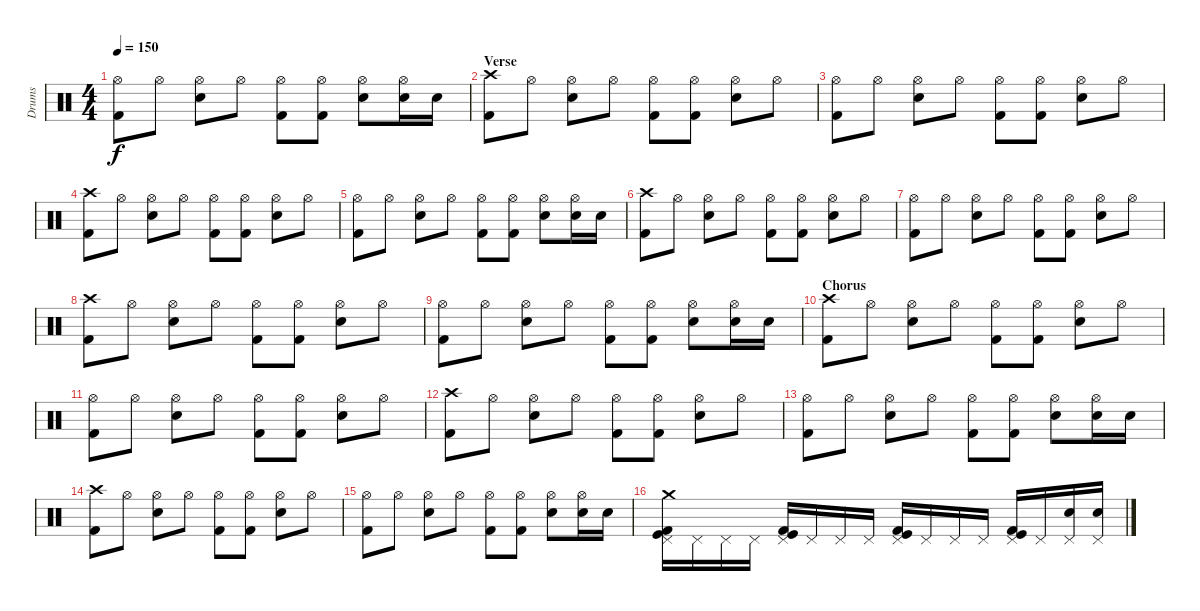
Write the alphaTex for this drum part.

\track ("Drums" "Drums") {instrument percussion}
\staff {score}
\articulation defaults
\ts (4 4)
\tempo 150
\clef neutral
\ks c
("Hi-Hat (open)" "Kick (hit) 2").8{dy f} "Hi-Hat (open)".8 ("Hi-Hat (open)" "Snare (hit) 2").8 "Hi-Hat (open)".8 ("Hi-Hat (open)" "Kick (hit) 2").8 ("Hi-Hat (open)" "Kick (hit) 2").8 ("Hi-Hat (open)" "Snare (hit) 2").8 ("Hi-Hat (open)" "Snare (hit) 2").16 "Snare (hit) 2".16 |
\section ("" "Verse")
("Crash high (hit)" "Kick (hit) 2").8 "Hi-Hat (open)".8 ("Hi-Hat (open)" "Snare (hit) 2").8 "Hi-Hat (open)".8 ("Hi-Hat (open)" "Kick (hit) 2").8 ("Hi-Hat (open)" "Kick (hit) 2").8 ("Hi-Hat (open)" "Snare (hit) 2").8 "Hi-Hat (open)".8 |
("Hi-Hat (open)" "Kick (hit) 2").8 "Hi-Hat (open)".8 ("Hi-Hat (open)" "Snare (hit) 2").8 "Hi-Hat (open)".8 ("Hi-Hat (open)" "Kick (hit) 2").8 ("Hi-Hat (open)" "Kick (hit) 2").8 ("Hi-Hat (open)" "Snare (hit) 2").8 "Hi-Hat (open)".8 |
("Crash high (hit)" "Kick (hit) 2").8 "Hi-Hat (open)".8 ("Hi-Hat (open)" "Snare (hit) 2").8 "Hi-Hat (open)".8 ("Hi-Hat (open)" "Kick (hit) 2").8 ("Hi-Hat (open)" "Kick (hit) 2").8 ("Hi-Hat (open)" "Snare (hit) 2").8 "Hi-Hat (open)".8 |
("Hi-Hat (open)" "Kick (hit) 2").8 "Hi-Hat (open)".8 ("Hi-Hat (open)" "Snare (hit) 2").8 "Hi-Hat (open)".8 ("Hi-Hat (open)" "Kick (hit) 2").8 ("Hi-Hat (open)" "Kick (hit) 2").8 ("Hi-Hat (open)" "Snare (hit) 2").8 ("Hi-Hat (open)" "Snare (hit) 2").16 "Snare (hit) 2".16 |
("Crash high (hit)" "Kick (hit) 2").8 "Hi-Hat (open)".8 ("Hi-Hat (open)" "Snare (hit) 2").8 "Hi-Hat (open)".8 ("Hi-Hat (open)" "Kick (hit) 2").8 ("Hi-Hat (open)" "Kick (hit) 2").8 ("Hi-Hat (open)" "Snare (hit) 2").8 "Hi-Hat (open)".8 |
("Hi-Hat (open)" "Kick (hit) 2").8 "Hi-Hat (open)".8 ("Hi-Hat (open)" "Snare (hit) 2").8 "Hi-Hat (open)".8 ("Hi-Hat (open)" "Kick (hit) 2").8 ("Hi-Hat (open)" "Kick (hit) 2").8 ("Hi-Hat (open)" "Snare (hit) 2").8 "Hi-Hat (open)".8 |
("Crash high (hit)" "Kick (hit) 2").8 "Hi-Hat (open)".8 ("Hi-Hat (open)" "Snare (hit) 2").8 "Hi-Hat (open)".8 ("Hi-Hat (open)" "Kick (hit) 2").8 ("Hi-Hat (open)" "Kick (hit) 2").8 ("Hi-Hat (open)" "Snare (hit) 2").8 "Hi-Hat (open)".8 |
("Hi-Hat (open)" "Kick (hit) 2").8 "Hi-Hat (open)".8 ("Hi-Hat (open)" "Snare (hit) 2").8 "Hi-Hat (open)".8 ("Hi-Hat (open)" "Kick (hit) 2").8 ("Hi-Hat (open)" "Kick (hit) 2").8 ("Hi-Hat (open)" "Snare (hit) 2").8 ("Hi-Hat (open)" "Snare (hit) 2").16 "Snare (hit) 2".16 |
\section ("" "Chorus")
("Crash high (hit)" "Kick (hit) 2").8 "Hi-Hat (open)".8 ("Hi-Hat (open)" "Snare (hit) 2").8 "Hi-Hat (open)".8 ("Hi-Hat (open)" "Kick (hit) 2").8 ("Hi-Hat (open)" "Kick (hit) 2").8 ("Hi-Hat (open)" "Snare (hit) 2").8 "Hi-Hat (open)".8 |
("Hi-Hat (open)" "Kick (hit) 2").8 "Hi-Hat (open)".8 ("Hi-Hat (open)" "Snare (hit) 2").8 "Hi-Hat (open)".8 ("Hi-Hat (open)" "Kick (hit) 2").8 ("Hi-Hat (open)" "Kick (hit) 2").8 ("Hi-Hat (open)" "Snare (hit) 2").8 "Hi-Hat (open)".8 |
("Crash high (hit)" "Kick (hit) 2").8 "Hi-Hat (open)".8 ("Hi-Hat (open)" "Snare (hit) 2").8 "Hi-Hat (open)".8 ("Hi-Hat (open)" "Kick (hit) 2").8 ("Hi-Hat (open)" "Kick (hit) 2").8 ("Hi-Hat (open)" "Snare (hit) 2").8 "Hi-Hat (open)".8 |
("Hi-Hat (open)" "Kick (hit) 2").8 "Hi-Hat (open)".8 ("Hi-Hat (open)" "Snare (hit) 2").8 "Hi-Hat (open)".8 ("Hi-Hat (open)" "Kick (hit) 2").8 ("Hi-Hat (open)" "Kick (hit) 2").8 ("Hi-Hat (open)" "Snare (hit) 2").8 ("Hi-Hat (open)" "Snare (hit) 2").16 "Snare (hit) 2".16 |
("Crash high (hit)" "Kick (hit) 2").8 "Hi-Hat (open)".8 ("Hi-Hat (open)" "Snare (hit) 2").8 "Hi-Hat (open)".8 ("Hi-Hat (open)" "Kick (hit) 2").8 ("Hi-Hat (open)" "Kick (hit) 2").8 ("Hi-Hat (open)" "Snare (hit) 2").8 "Hi-Hat (open)".8 |
("Hi-Hat (open)" "Kick (hit) 2").8 "Hi-Hat (open)".8 ("Hi-Hat (open)" "Snare (hit) 2").8 "Hi-Hat (open)".8 ("Hi-Hat (open)" "Kick (hit) 2").8 ("Hi-Hat (open)" "Kick (hit) 2").8 ("Hi-Hat (open)" "Snare (hit) 2").8 ("Hi-Hat (open)" "Snare (hit) 2").16 "Snare (hit) 2".16 |
("Pedal Hi-Hat (hit)" "Kick (hit) 2" "Kick (hit)" "Crash medium (hit)").16 "Pedal Hi-Hat (hit)".16 "Pedal Hi-Hat (hit)".16 "Pedal Hi-Hat (hit)".16 ("Pedal Hi-Hat (hit)" "Kick (hit) 2" "Kick (hit)").16 "Pedal Hi-Hat (hit)".16 "Pedal Hi-Hat (hit)".16 "Pedal Hi-Hat (hit)".16 ("Pedal Hi-Hat (hit)" "Kick (hit) 2" "Kick (hit)").16 "Pedal Hi-Hat (hit)".16 "Pedal Hi-Hat (hit)".16 "Pedal Hi-Hat (hit)".16 ("Pedal Hi-Hat (hit)" "Kick (hit) 2" "Kick (hit)").16 "Pedal Hi-Hat (hit)".16 ("Pedal Hi-Hat (hit)" "Snare (hit) 2").16 ("Pedal Hi-Hat (hit)" "Snare (hit) 2").16
